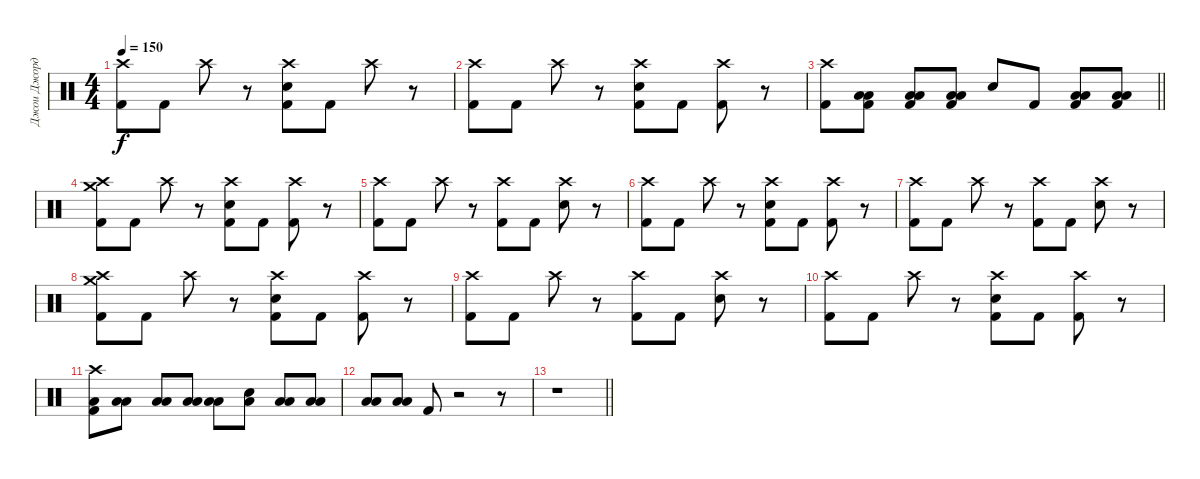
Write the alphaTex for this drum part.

\track ("Джои Джордисон" "Джои Джорд") {instrument percussion}
\staff {score}
\articulation defaults
\ts (4 4)
\tempo 150
\clef neutral
\ks c
("Crash high (hit)" "Kick (hit) 2").8{dy f} "Kick (hit) 2".8 "Crash high (hit)".8 r.8 ("Crash high (hit)" "Electric Snare (hit)" "Kick (hit) 2").8 "Kick (hit) 2".8 "Crash high (hit)".8 r.8 |
("Crash high (hit)" "Kick (hit) 2").8 "Kick (hit) 2".8 "Crash high (hit)".8 r.8 ("Crash high (hit)" "Electric Snare (hit)" "Kick (hit) 2").8 "Kick (hit) 2".8 ("Crash high (hit)" "Kick (hit) 2").8 r.8 |
\barLineRight lightlight
("Crash high (hit)" "Kick (hit) 2").8 ("Low Floor Tom (hit)" "Low Tom (hit)" "Kick (hit) 2").8 ("Low Floor Tom (hit)" "Low Tom (hit)" "Kick (hit) 2").8 ("Low Floor Tom (hit)" "Low Tom (hit)" "Kick (hit) 2").8 "Electric Snare (hit)".8 "Kick (hit) 2".8 ("Low Floor Tom (hit)" "Low Tom (hit)" "Kick (hit) 2").8 ("Low Floor Tom (hit)" "Low Tom (hit)" "Kick (hit) 2").8 |
("Crash high (hit)" "Crash medium (hit)" "Kick (hit) 2").8 "Kick (hit) 2".8 "Crash high (hit)".8 r.8 ("Crash high (hit)" "Electric Snare (hit)" "Kick (hit) 2").8 "Kick (hit) 2".8 ("Crash high (hit)" "Kick (hit) 2").8 r.8 |
("Crash high (hit)" "Kick (hit) 2").8 "Kick (hit) 2".8 "Crash high (hit)".8 r.8 ("Crash high (hit)" "Kick (hit) 2").8 "Kick (hit) 2".8 ("Crash high (hit)" "Electric Snare (hit)").8 r.8 |
("Crash high (hit)" "Kick (hit) 2").8 "Kick (hit) 2".8 "Crash high (hit)".8 r.8 ("Crash high (hit)" "Electric Snare (hit)" "Kick (hit) 2").8 "Kick (hit) 2".8 ("Crash high (hit)" "Kick (hit) 2").8 r.8 |
("Crash high (hit)" "Kick (hit) 2").8 "Kick (hit) 2".8 "Crash high (hit)".8 r.8 ("Crash high (hit)" "Kick (hit) 2").8 "Kick (hit) 2".8 ("Crash high (hit)" "Electric Snare (hit)").8 r.8 |
("Crash high (hit)" "Crash medium (hit)" "Kick (hit) 2").8 "Kick (hit) 2".8 "Crash high (hit)".8 r.8 ("Crash high (hit)" "Electric Snare (hit)" "Kick (hit) 2").8 "Kick (hit) 2".8 ("Crash high (hit)" "Kick (hit) 2").8 r.8 |
("Crash high (hit)" "Kick (hit) 2").8 "Kick (hit) 2".8 "Crash high (hit)".8 r.8 ("Crash high (hit)" "Kick (hit) 2").8 "Kick (hit) 2".8 ("Crash high (hit)" "Electric Snare (hit)").8 r.8 |
("Crash high (hit)" "Kick (hit) 2").8 "Kick (hit) 2".8 "Crash high (hit)".8 r.8 ("Crash high (hit)" "Electric Snare (hit)" "Kick (hit) 2").8 "Kick (hit) 2".8 ("Crash high (hit)" "Kick (hit) 2").8 r.8 |
("Crash high (hit)" "Low Floor Tom (hit)" "Kick (hit) 2").8 ("Low Tom (hit)" "Low Floor Tom (hit)").8 ("Low Tom (hit)" "Low Floor Tom (hit)").8 ("Low Tom (hit)" "Low Floor Tom (hit)").8 ("Low Tom (hit)" "Low Floor Tom (hit)").8 ("Low Floor Tom (hit)" "Electric Snare (hit)").8 ("Low Tom (hit)" "Low Floor Tom (hit)").8 ("Low Tom (hit)" "Low Floor Tom (hit)").8 |
("Low Tom (hit)" "Low Floor Tom (hit)").8 ("Low Tom (hit)" "Low Floor Tom (hit)").8 "Kick (hit) 2".8 r.2 r.8 |
\barLineRight lightlight
r.1
